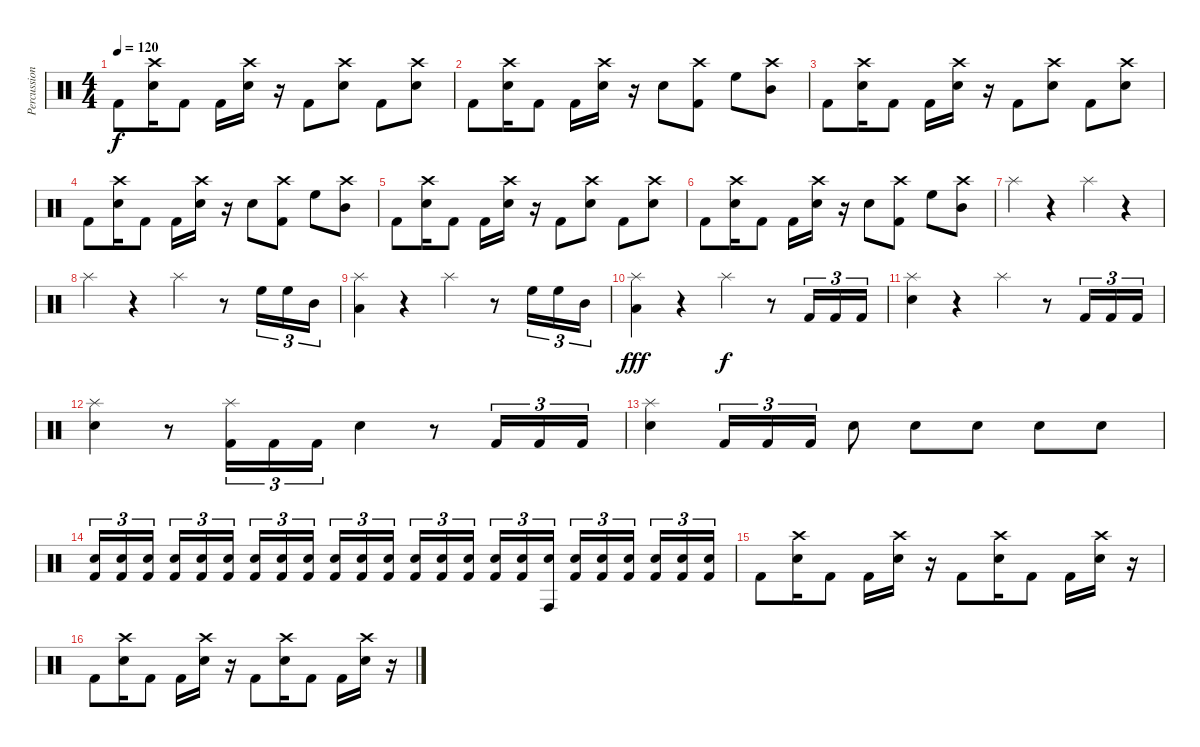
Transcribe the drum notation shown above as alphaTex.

\track ("Percussion" "Percussion") {instrument percussion}
\staff {score}
\articulation defaults
\ts (4 4)
\tempo 120
\clef neutral
\ks c "Kick (hit) 2".8{dy f}
("Crash high (hit)" "Electric Snare (hit)").16 "Kick (hit) 2".8 "Kick (hit) 2".16 ("Crash high (hit)" "Electric Snare (hit)").16 r.16 "Kick (hit) 2".8 ("Crash high (hit)" "Electric Snare (hit)").8 "Kick (hit) 2".8 ("Crash high (hit)" "Electric Snare (hit)").8 |
"Kick (hit) 2".8 ("Crash high (hit)" "Electric Snare (hit)").16 "Kick (hit) 2".8 "Kick (hit) 2".16 ("Crash high (hit)" "Electric Snare (hit)").16 r.16 "Electric Snare (hit)".8 ("Crash high (hit)" "Kick (hit) 2").8 "High Floor Tom (hit)".8 ("Crash high (hit)" "Mid Tom (hit)").8 |
"Kick (hit) 2".8 ("Crash high (hit)" "Electric Snare (hit)").16 "Kick (hit) 2".8 "Kick (hit) 2".16 ("Crash high (hit)" "Electric Snare (hit)").16 r.16 "Kick (hit) 2".8 ("Crash high (hit)" "Electric Snare (hit)").8 "Kick (hit) 2".8 ("Crash high (hit)" "Electric Snare (hit)").8 |
"Kick (hit) 2".8 ("Crash high (hit)" "Electric Snare (hit)").16 "Kick (hit) 2".8 "Kick (hit) 2".16 ("Crash high (hit)" "Electric Snare (hit)").16 r.16 "Electric Snare (hit)".8 ("Crash high (hit)" "Kick (hit) 2").8 "High Floor Tom (hit)".8 ("Crash high (hit)" "Mid Tom (hit)").8 |
"Kick (hit) 2".8 ("Crash high (hit)" "Electric Snare (hit)").16 "Kick (hit) 2".8 "Kick (hit) 2".16 ("Crash high (hit)" "Electric Snare (hit)").16 r.16 "Kick (hit) 2".8 ("Crash high (hit)" "Electric Snare (hit)").8 "Kick (hit) 2".8 ("Crash high (hit)" "Electric Snare (hit)").8 |
"Kick (hit) 2".8 ("Crash high (hit)" "Electric Snare (hit)").16 "Kick (hit) 2".8 "Kick (hit) 2".16 ("Crash high (hit)" "Electric Snare (hit)").16 r.16 "Electric Snare (hit)".8 ("Crash high (hit)" "Kick (hit) 2").8 "High Floor Tom (hit)".8 ("Crash high (hit)" "Mid Tom (hit)").8 |
"Splash (hit)".4 r.4 "Splash (hit)".4 r.4 |
"Splash (hit)".4 r.4 "Splash (hit)".4 r.8 "High Floor Tom (hit)".16{tu (3 2)} "High Floor Tom (hit)".16{tu (3 2)} "Mid Tom (hit)".16{tu (3 2)} |
("Splash (hit)" "Low Floor Tom (hit)").4 r.4 "Splash (hit)".4 r.8 "High Floor Tom (hit)".16{tu (3 2)} "High Floor Tom (hit)".16{tu (3 2)} "Mid Tom (hit)".16{tu (3 2)} |
("Splash (hit)" "Low Floor Tom (hit)").4{dy fff} r.4 "Splash (hit)".4{dy f} r.8 "Kick (hit) 2".16{tu (3 2)} "Kick (hit) 2".16{tu (3 2)} "Kick (hit) 2".16{tu (3 2)} |
("Splash (hit)" "Electric Snare (hit)").4 r.4 "Splash (hit)".4 r.8 "Kick (hit) 2".16{tu (3 2)} "Kick (hit) 2".16{tu (3 2)} "Kick (hit) 2".16{tu (3 2)} |
("Splash (hit)" "Electric Snare (hit)").4 r.8 ("Splash (hit)" "Kick (hit) 2").16{tu (3 2)} "Kick (hit) 2".16{tu (3 2)} "Kick (hit) 2".16{tu (3 2)} "Electric Snare (hit)".4 r.8 "Kick (hit) 2".16{tu (3 2)} "Kick (hit) 2".16{tu (3 2)} "Kick (hit) 2".16{tu (3 2)} |
("Splash (hit)" "Electric Snare (hit)").4 "Kick (hit) 2".16{tu (3 2)} "Kick (hit) 2".16{tu (3 2)} "Kick (hit) 2".16{tu (3 2)} "Electric Snare (hit)".8 "Electric Snare (hit)".8 "Electric Snare (hit)".8 "Electric Snare (hit)".8 "Electric Snare (hit)".8 |
("Electric Snare (hit)" "Kick (hit) 2").16{tu (3 2)} ("Electric Snare (hit)" "Kick (hit) 2").16{tu (3 2)} ("Electric Snare (hit)" "Kick (hit) 2").16{tu (3 2)} ("Electric Snare (hit)" "Kick (hit) 2").16{tu (3 2)} ("Electric Snare (hit)" "Kick (hit) 2").16{tu (3 2)} ("Electric Snare (hit)" "Kick (hit) 2").16{tu (3 2)} ("Electric Snare (hit)" "Kick (hit) 2").16{tu (3 2)} ("Electric Snare (hit)" "Kick (hit) 2").16{tu (3 2)} ("Electric Snare (hit)" "Kick (hit) 2").16{tu (3 2)} ("Electric Snare (hit)" "Kick (hit) 2").16{tu (3 2)} ("Electric Snare (hit)" "Kick (hit) 2").16{tu (3 2)} ("Electric Snare (hit)" "Kick (hit) 2").16{tu (3 2)} ("Electric Snare (hit)" "Kick (hit) 2").16{tu (3 2)} ("Electric Snare (hit)" "Kick (hit) 2").16{tu (3 2)} ("Electric Snare (hit)" "Kick (hit) 2").16{tu (3 2)} ("Electric Snare (hit)" "Kick (hit) 2").16{tu (3 2)} ("Electric Snare (hit)" "Kick (hit) 2").16{tu (3 2)} ("Electric Snare (hit)" "Conga high (hit)").16{tu (3 2)} ("Electric Snare (hit)" "Kick (hit) 2").16{tu (3 2)} ("Electric Snare (hit)" "Kick (hit) 2").16{tu (3 2)} ("Electric Snare (hit)" "Kick (hit) 2").16{tu (3 2)} ("Electric Snare (hit)" "Kick (hit) 2").16{tu (3 2)} ("Electric Snare (hit)" "Kick (hit) 2").16{tu (3 2)} ("Electric Snare (hit)" "Kick (hit) 2").16{tu (3 2)} |
"Kick (hit) 2".8 ("Crash high (hit)" "Electric Snare (hit)").16 "Kick (hit) 2".8 "Kick (hit) 2".16 ("Crash high (hit)" "Electric Snare (hit)").16 r.16 "Kick (hit) 2".8 ("Crash high (hit)" "Electric Snare (hit)").16 "Kick (hit) 2".8 "Kick (hit) 2".16 ("Crash high (hit)" "Electric Snare (hit)").16 r.16 |
"Kick (hit) 2".8 ("Crash high (hit)" "Electric Snare (hit)").16 "Kick (hit) 2".8 "Kick (hit) 2".16 ("Crash high (hit)" "Electric Snare (hit)").16 r.16 "Kick (hit) 2".8 ("Crash high (hit)" "Electric Snare (hit)").16 "Kick (hit) 2".8 "Kick (hit) 2".16 ("Crash high (hit)" "Electric Snare (hit)").16 r.16
